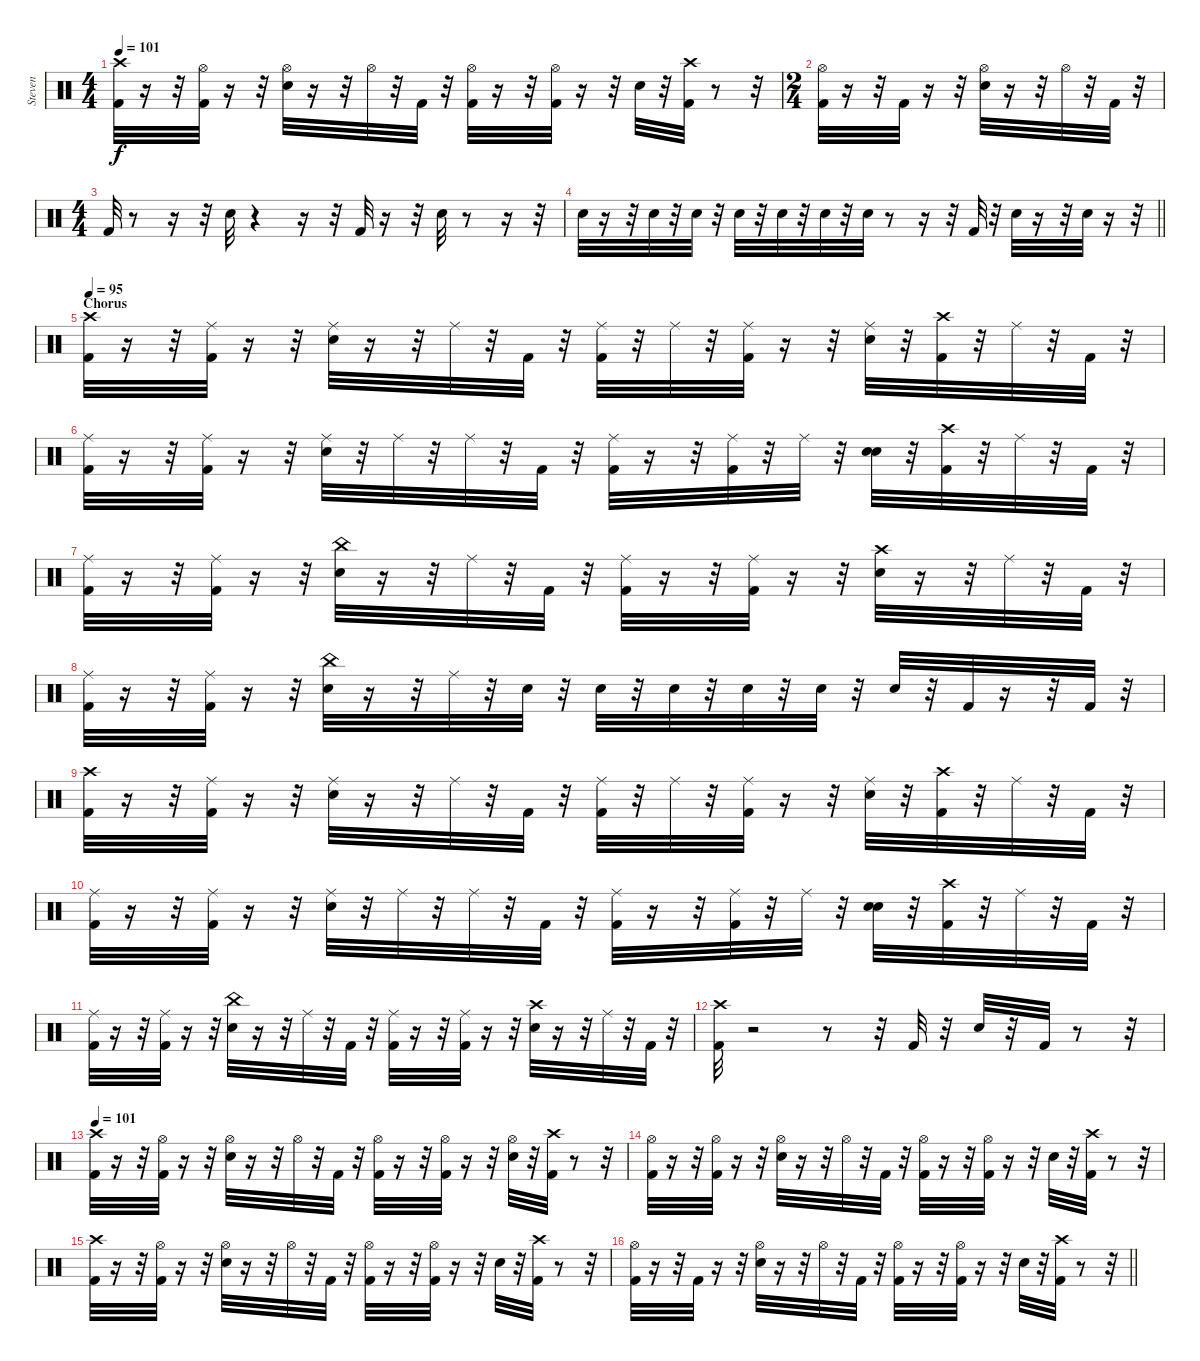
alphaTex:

\track ("Steven" "Steven") {instrument percussion}
\staff {score}
\articulation defaults
\ts (4 4)
\tempo 101
\clef neutral
\ks c
("Crash high (hit)" "Kick (hit) 2").32{dy f} r.16 r.32 ("Kick (hit) 2" "Hi-Hat (open)").32 r.16 r.32 ("Snare (hit) 2" "Hi-Hat (open)").32 r.16 r.32 "Hi-Hat (open)".32 r.32 "Kick (hit) 2".32 r.32 ("Kick (hit) 2" "Hi-Hat (open)").32 r.16 r.32 ("Hi-Hat (open)" "Kick (hit) 2").32 r.16 r.32 "Snare (hit) 2".32 r.32 ("Crash high (hit)" "Kick (hit) 2").32 r.8 r.32 |
\ts (2 4)
("Kick (hit) 2" "Hi-Hat (open)").32 r.16 r.32 "Kick (hit) 2".32 r.16 r.32 ("Snare (hit) 2" "Hi-Hat (open)").32 r.16 r.32 "Hi-Hat (open)".32 r.32 "Kick (hit) 2".32 r.32 |
\ts (4 4)
"Kick (hit) 2".32 r.8 r.16 r.32 "Snare (hit) 2".32 r.4 r.16 r.32 "Kick (hit) 2".32 r.16 r.32 "Snare (hit) 2".32 r.8 r.16 r.32 |
\barLineRight lightlight "Snare (hit) 2".32
r.16 r.32 "Snare (hit) 2".32 r.32 "Snare (hit) 2".32 r.32 "Snare (hit) 2".32 r.32 "Snare (hit) 2".32 r.32 "Snare (hit) 2".32 r.32 "Snare (hit) 2".32 r.8 r.16 r.32 "Kick (hit) 2".32 r.32 "Snare (hit) 2".32 r.16 r.32 "Snare (hit) 2".32 r.16 r.32 |
\section ("" "Chorus")
\tempo 95
("Crash high (hit)" "Kick (hit) 2").32 r.16 r.32 ("Kick (hit) 2" "Ride (middle)").32 r.16 r.32 ("Ride (middle)" "Snare (hit) 2").32 r.16 r.32 "Ride (middle)".32 r.32 "Kick (hit) 2".32 r.32 ("Kick (hit) 2" "Ride (middle)").32 r.32 "Ride (middle)".32 r.32 ("Ride (middle)" "Kick (hit) 2").32 r.16 r.32 ("Snare (hit) 2" "Ride (middle)").32 r.32 ("Crash high (hit)" "Kick (hit) 2").32 r.32 "Ride (middle)".32 r.32 "Kick (hit) 2".32 r.32 |
("Kick (hit) 2" "Ride (middle)").32 r.16 r.32 ("Kick (hit) 2" "Ride (middle)").32 r.16 r.32 ("Snare (hit) 2" "Ride (middle)").32 r.32 "Ride (middle)".32 r.32 "Ride (middle)".32 r.32 "Kick (hit) 2".32 r.32 ("Ride (middle)" "Kick (hit) 2").32 r.16 r.32 ("Kick (hit) 2" "Ride (middle)").32 r.32 "Ride (middle)".32 r.32 ("Electric Snare (hit)" "Snare (hit) 2").32 r.32 ("Kick (hit) 2" "Crash high (hit)").32 r.32 "Ride (middle)".32 r.32 "Kick (hit) 2".32 r.32 |
("Kick (hit) 2" "Ride (middle)").32 r.16 r.32 ("Kick (hit) 2" "Ride (middle)").32 r.16 r.32 ("China (hit)" "Snare (hit) 2").32 r.16 r.32 "Ride (middle)".32 r.32 "Kick (hit) 2".32 r.32 ("Kick (hit) 2" "Ride (middle)").32 r.16 r.32 ("Ride (middle)" "Kick (hit) 2").32 r.16 r.32 ("Snare (hit) 2" "Crash high (hit)").32 r.16 r.32 "Ride (middle)".32 r.32 "Kick (hit) 2".32 r.32 |
("Ride (middle)" "Kick (hit) 2").32 r.16 r.32 ("Kick (hit) 2" "Ride (middle)").32 r.16 r.32 ("Snare (hit) 2" "China (hit)").32 r.16 r.32 "Ride (middle)".32 r.32 "Snare (hit) 2".32 r.32 "Snare (hit) 2".32 r.32 "Snare (hit) 2".32 r.32 "Snare (hit) 2".32 r.32 "Snare (hit) 2".32 r.32 "Snare (hit) 2".32 r.32 "Kick (hit) 2".32 r.16 r.32 "Kick (hit) 2".32 r.32 |
("Crash high (hit)" "Kick (hit) 2").32 r.16 r.32 ("Kick (hit) 2" "Ride (middle)").32 r.16 r.32 ("Ride (middle)" "Snare (hit) 2").32 r.16 r.32 "Ride (middle)".32 r.32 "Kick (hit) 2".32 r.32 ("Kick (hit) 2" "Ride (middle)").32 r.32 "Ride (middle)".32 r.32 ("Ride (middle)" "Kick (hit) 2").32 r.16 r.32 ("Snare (hit) 2" "Ride (middle)").32 r.32 ("Crash high (hit)" "Kick (hit) 2").32 r.32 "Ride (middle)".32 r.32 "Kick (hit) 2".32 r.32 |
("Kick (hit) 2" "Ride (middle)").32 r.16 r.32 ("Kick (hit) 2" "Ride (middle)").32 r.16 r.32 ("Snare (hit) 2" "Ride (middle)").32 r.32 "Ride (middle)".32 r.32 "Ride (middle)".32 r.32 "Kick (hit) 2".32 r.32 ("Ride (middle)" "Kick (hit) 2").32 r.16 r.32 ("Kick (hit) 2" "Ride (middle)").32 r.32 "Ride (middle)".32 r.32 ("Electric Snare (hit)" "Snare (hit) 2").32 r.32 ("Kick (hit) 2" "Crash high (hit)").32 r.32 "Ride (middle)".32 r.32 "Kick (hit) 2".32 r.32 |
("Kick (hit) 2" "Ride (middle)").32 r.16 r.32 ("Kick (hit) 2" "Ride (middle)").32 r.16 r.32 ("China (hit)" "Snare (hit) 2").32 r.16 r.32 "Ride (middle)".32 r.32 "Kick (hit) 2".32 r.32 ("Kick (hit) 2" "Ride (middle)").32 r.16 r.32 ("Ride (middle)" "Kick (hit) 2").32 r.16 r.32 ("Snare (hit) 2" "Crash high (hit)").32 r.16 r.32 "Ride (middle)".32 r.32 "Kick (hit) 2".32 r.32 |
("Crash high (hit)" "Kick (hit) 2").32 r.2 r.8 r.32 "Kick (hit) 2".32 r.32 "Snare (hit) 2".32 r.32 "Kick (hit) 2".32 r.8 r.32 |
\tempo 101
("Crash high (hit)" "Kick (hit) 2").32 r.16 r.32 ("Hi-Hat (open)" "Kick (hit) 2").32 r.16 r.32 ("Hi-Hat (open)" "Snare (hit) 2").32 r.16 r.32 "Hi-Hat (open)".32 r.32 "Kick (hit) 2".32 r.32 ("Kick (hit) 2" "Hi-Hat (open)").32 r.16 r.32 ("Kick (hit) 2" "Hi-Hat (open)").32 r.16 r.32 ("Hi-Hat (open)" "Snare (hit) 2").32 r.32 ("Kick (hit) 2" "Crash high (hit)").32 r.8 r.32 |
("Hi-Hat (open)" "Kick (hit) 2").32 r.16 r.32 ("Kick (hit) 2" "Hi-Hat (open)").32 r.16 r.32 ("Hi-Hat (open)" "Snare (hit) 2").32 r.16 r.32 "Hi-Hat (open)".32 r.32 "Kick (hit) 2".32 r.32 ("Kick (hit) 2" "Hi-Hat (open)").32 r.16 r.32 ("Kick (hit) 2" "Hi-Hat (open)").32 r.16 r.32 "Snare (hit) 2".32 r.32 ("Kick (hit) 2" "Crash high (hit)").32 r.8 r.32 |
("Crash high (hit)" "Kick (hit) 2").32 r.16 r.32 ("Kick (hit) 2" "Hi-Hat (open)").32 r.16 r.32 ("Snare (hit) 2" "Hi-Hat (open)").32 r.16 r.32 "Hi-Hat (open)".32 r.32 "Kick (hit) 2".32 r.32 ("Kick (hit) 2" "Hi-Hat (open)").32 r.16 r.32 ("Hi-Hat (open)" "Kick (hit) 2").32 r.16 r.32 "Snare (hit) 2".32 r.32 ("Crash high (hit)" "Kick (hit) 2").32 r.8 r.32 |
\barLineRight lightlight
("Kick (hit) 2" "Hi-Hat (open)").32 r.16 r.32 "Kick (hit) 2".32 r.16 r.32 ("Snare (hit) 2" "Hi-Hat (open)").32 r.16 r.32 "Hi-Hat (open)".32 r.32 "Kick (hit) 2".32 r.32 ("Hi-Hat (open)" "Kick (hit) 2").32 r.16 r.32 ("Kick (hit) 2" "Hi-Hat (open)").32 r.16 r.32 "Snare (hit) 2".32 r.32 ("Kick (hit) 2" "Crash high (hit)").32 r.8 r.32
